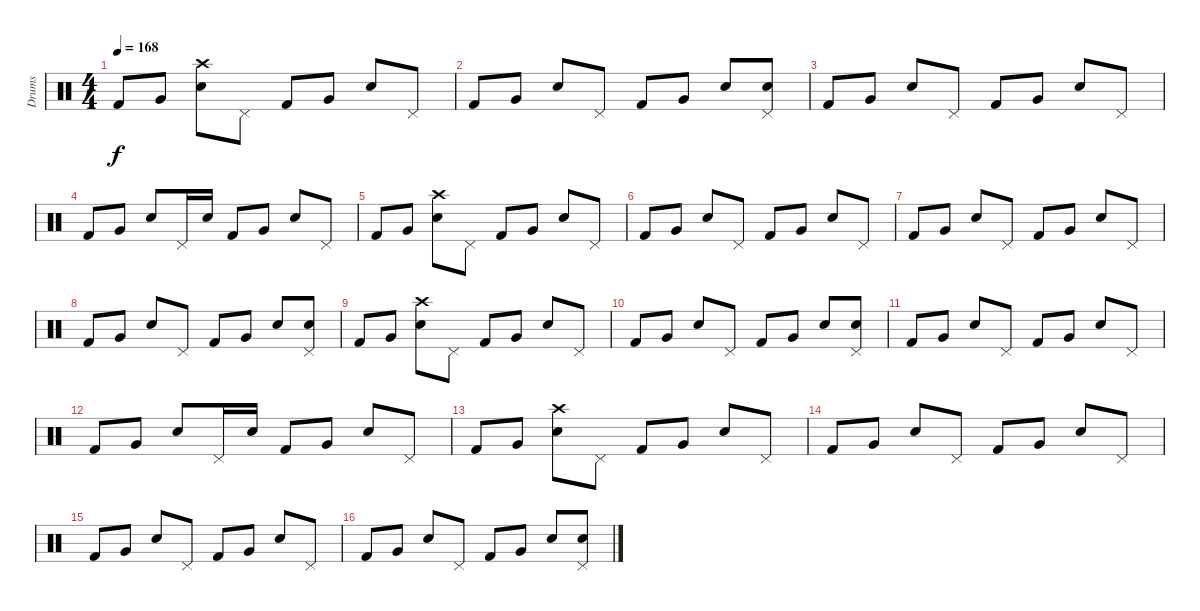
\track ("Drums" "Drums") {instrument percussion}
\staff {score}
\articulation defaults
\ts (4 4)
\tempo 168
\clef neutral
\ks c "Kick (hit) 2".8{dy f} "Very Low Tom (hit)".8
("Crash high (hit)" "Electric Snare (hit)").8 "Pedal Hi-Hat (hit)".8 "Kick (hit) 2".8 "Very Low Tom (hit)".8 "Electric Snare (hit)".8 "Pedal Hi-Hat (hit)".8 |
"Kick (hit) 2".8 "Very Low Tom (hit)".8 "Electric Snare (hit)".8 "Pedal Hi-Hat (hit)".8 "Kick (hit) 2".8 "Very Low Tom (hit)".8 "Electric Snare (hit)".8 ("Pedal Hi-Hat (hit)" "Electric Snare (hit)").8 |
"Kick (hit) 2".8 "Very Low Tom (hit)".8 "Electric Snare (hit)".8 "Pedal Hi-Hat (hit)".8 "Kick (hit) 2".8 "Very Low Tom (hit)".8 "Electric Snare (hit)".8 "Pedal Hi-Hat (hit)".8 |
"Kick (hit) 2".8 "Very Low Tom (hit)".8 "Electric Snare (hit)".8 "Pedal Hi-Hat (hit)".16 "Electric Snare (hit)".16 "Kick (hit) 2".8 "Very Low Tom (hit)".8 "Electric Snare (hit)".8 "Pedal Hi-Hat (hit)".8 |
"Kick (hit) 2".8 "Very Low Tom (hit)".8 ("Crash high (hit)" "Electric Snare (hit)").8 "Pedal Hi-Hat (hit)".8 "Kick (hit) 2".8 "Very Low Tom (hit)".8 "Electric Snare (hit)".8 "Pedal Hi-Hat (hit)".8 |
"Kick (hit) 2".8 "Very Low Tom (hit)".8 "Electric Snare (hit)".8 "Pedal Hi-Hat (hit)".8 "Kick (hit) 2".8 "Very Low Tom (hit)".8 "Electric Snare (hit)".8 "Pedal Hi-Hat (hit)".8 |
"Kick (hit) 2".8 "Very Low Tom (hit)".8 "Electric Snare (hit)".8 "Pedal Hi-Hat (hit)".8 "Kick (hit) 2".8 "Very Low Tom (hit)".8 "Electric Snare (hit)".8 "Pedal Hi-Hat (hit)".8 |
"Kick (hit) 2".8 "Very Low Tom (hit)".8 "Electric Snare (hit)".8 "Pedal Hi-Hat (hit)".8 "Kick (hit) 2".8 "Very Low Tom (hit)".8 "Electric Snare (hit)".8 ("Pedal Hi-Hat (hit)" "Electric Snare (hit)").8 |
"Kick (hit) 2".8 "Very Low Tom (hit)".8 ("Crash high (hit)" "Electric Snare (hit)").8 "Pedal Hi-Hat (hit)".8 "Kick (hit) 2".8 "Very Low Tom (hit)".8 "Electric Snare (hit)".8 "Pedal Hi-Hat (hit)".8 |
"Kick (hit) 2".8 "Very Low Tom (hit)".8 "Electric Snare (hit)".8 "Pedal Hi-Hat (hit)".8 "Kick (hit) 2".8 "Very Low Tom (hit)".8 "Electric Snare (hit)".8 ("Pedal Hi-Hat (hit)" "Electric Snare (hit)").8 |
"Kick (hit) 2".8 "Very Low Tom (hit)".8 "Electric Snare (hit)".8 "Pedal Hi-Hat (hit)".8 "Kick (hit) 2".8 "Very Low Tom (hit)".8 "Electric Snare (hit)".8 "Pedal Hi-Hat (hit)".8 |
"Kick (hit) 2".8 "Very Low Tom (hit)".8 "Electric Snare (hit)".8 "Pedal Hi-Hat (hit)".16 "Electric Snare (hit)".16 "Kick (hit) 2".8 "Very Low Tom (hit)".8 "Electric Snare (hit)".8 "Pedal Hi-Hat (hit)".8 |
"Kick (hit) 2".8 "Very Low Tom (hit)".8 ("Crash high (hit)" "Electric Snare (hit)").8 "Pedal Hi-Hat (hit)".8 "Kick (hit) 2".8 "Very Low Tom (hit)".8 "Electric Snare (hit)".8 "Pedal Hi-Hat (hit)".8 |
"Kick (hit) 2".8 "Very Low Tom (hit)".8 "Electric Snare (hit)".8 "Pedal Hi-Hat (hit)".8 "Kick (hit) 2".8 "Very Low Tom (hit)".8 "Electric Snare (hit)".8 "Pedal Hi-Hat (hit)".8 |
"Kick (hit) 2".8 "Very Low Tom (hit)".8 "Electric Snare (hit)".8 "Pedal Hi-Hat (hit)".8 "Kick (hit) 2".8 "Very Low Tom (hit)".8 "Electric Snare (hit)".8 "Pedal Hi-Hat (hit)".8 |
"Kick (hit) 2".8 "Very Low Tom (hit)".8 "Electric Snare (hit)".8 "Pedal Hi-Hat (hit)".8 "Kick (hit) 2".8 "Very Low Tom (hit)".8 "Electric Snare (hit)".8 ("Pedal Hi-Hat (hit)" "Electric Snare (hit)").8
